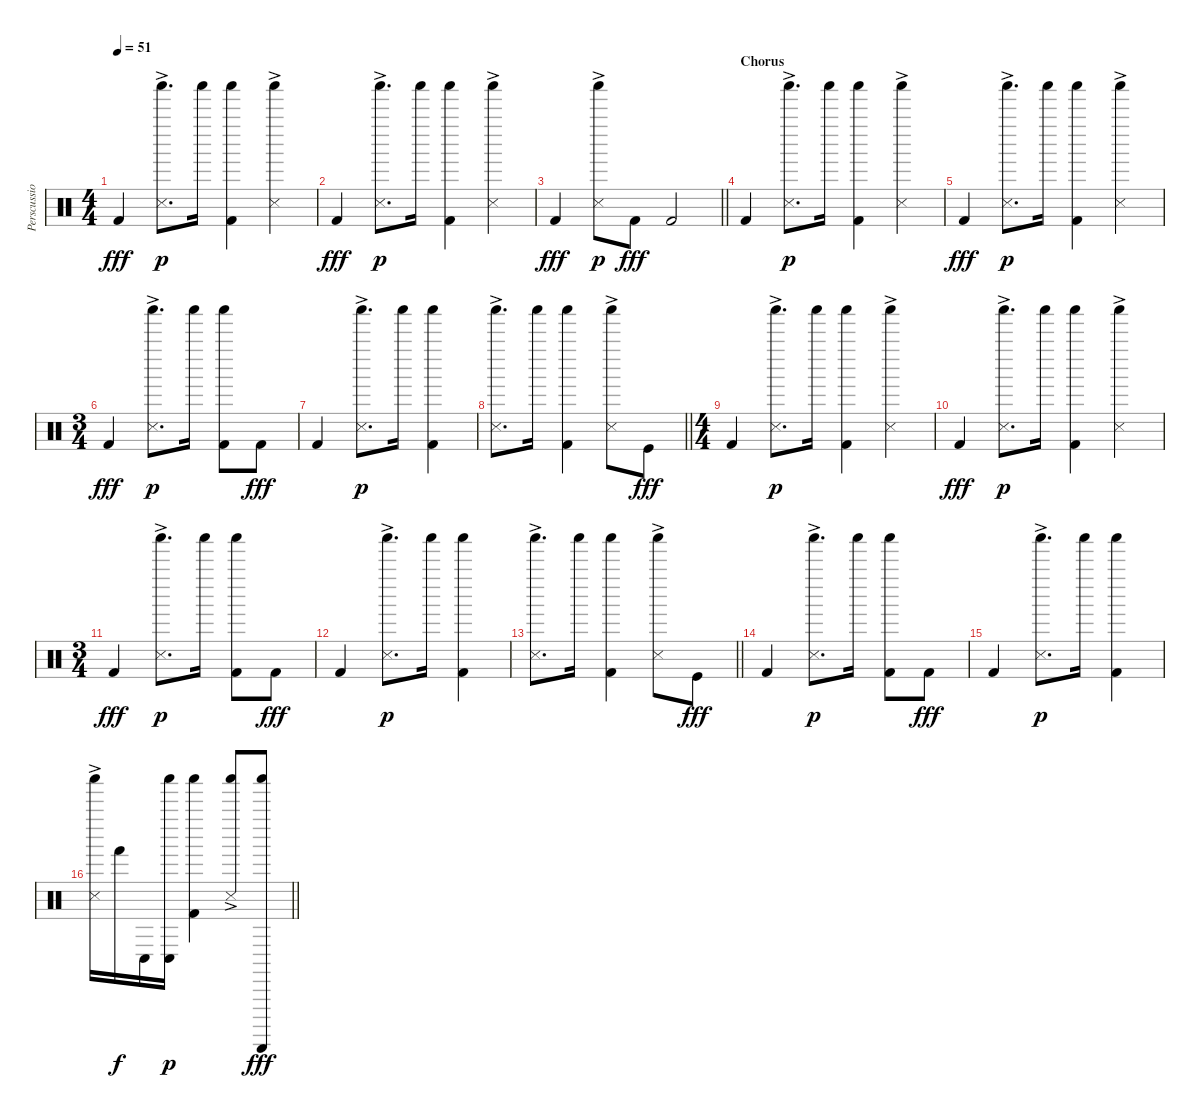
\track ("Perscussion" "Perscussio") {instrument percussion}
\staff {score}
\articulation defaults
\ts (4 4)
\tempo 51
\clef neutral
\ks c "Kick (hit) 2".4{dy fff}
("Snare (side stick) 3"{ac} "Shaker (hit)"{ac}).8{d dy p} "Shaker (hit)".16 ("Kick (hit) 2" "Shaker (hit)").4 ("Snare (side stick) 3"{ac} "Shaker (hit)").4 |
"Kick (hit) 2".4{dy fff} ("Snare (side stick) 3"{ac} "Shaker (hit)"{ac}).8{d dy p} "Shaker (hit)".16 ("Kick (hit) 2" "Shaker (hit)").4 ("Snare (side stick) 3"{ac} "Shaker (hit)"{ac}).4 |
\barLineRight lightlight "Kick (hit) 2".4{dy fff}
("Snare (side stick) 3"{ac} "Shaker (hit)"{ac}).8{dy p} "Kick (hit) 2".8{dy fff} "Kick (hit) 2".2 |
\section ("" "Chorus")
"Kick (hit) 2".4 ("Snare (side stick) 3"{ac} "Shaker (hit)"{ac}).8{d dy p} "Shaker (hit)".16 ("Kick (hit) 2" "Shaker (hit)").4 ("Snare (side stick) 3"{ac} "Shaker (hit)"{ac}).4 |
"Kick (hit) 2".4{dy fff} ("Snare (side stick) 3"{ac} "Shaker (hit)"{ac}).8{d dy p} "Shaker (hit)".16 ("Kick (hit) 2" "Shaker (hit)").4 ("Snare (side stick) 3"{ac} "Shaker (hit)"{ac}).4 |
\ts (3 4)
"Kick (hit) 2".4{dy fff} ("Snare (side stick) 3"{ac} "Shaker (hit)"{ac}).8{d dy p} "Shaker (hit)".16 ("Kick (hit) 2" "Shaker (hit)").8 "Kick (hit) 2".8{dy fff} |
"Kick (hit) 2".4 ("Snare (side stick) 3"{ac} "Shaker (hit)"{ac}).8{d dy p} "Shaker (hit)".16 ("Kick (hit) 2" "Shaker (hit)").4 |
\barLineRight lightlight
("Snare (side stick) 3"{ac} "Shaker (hit)"{ac}).8{d} "Shaker (hit)".16 ("Kick (hit) 2" "Shaker (hit)").4 ("Snare (side stick) 3"{ac} "Shaker (hit)"{ac}).8 "Kick (hit)".8{dy fff} |
\ts (4 4)
"Kick (hit) 2".4 ("Snare (side stick) 3"{ac} "Shaker (hit)"{ac}).8{d dy p} "Shaker (hit)".16 ("Kick (hit) 2" "Shaker (hit)").4 ("Snare (side stick) 3"{ac} "Shaker (hit)"{ac}).4 |
"Kick (hit) 2".4{dy fff} ("Snare (side stick) 3"{ac} "Shaker (hit)"{ac}).8{d dy p} "Shaker (hit)".16 ("Kick (hit) 2" "Shaker (hit)").4 ("Snare (side stick) 3"{ac} "Shaker (hit)"{ac}).4 |
\ts (3 4)
"Kick (hit) 2".4{dy fff} ("Snare (side stick) 3"{ac} "Shaker (hit)"{ac}).8{d dy p} "Shaker (hit)".16 ("Kick (hit) 2" "Shaker (hit)").8 "Kick (hit) 2".8{dy fff} |
"Kick (hit) 2".4 ("Snare (side stick) 3"{ac} "Shaker (hit)"{ac}).8{d dy p} "Shaker (hit)".16 ("Kick (hit) 2" "Shaker (hit)").4 |
\barLineRight lightlight
("Snare (side stick) 3"{ac} "Shaker (hit)"{ac}).8{d} "Shaker (hit)".16 ("Kick (hit) 2" "Shaker (hit)").4 ("Snare (side stick) 3"{ac} "Shaker (hit)"{ac}).8 "Kick (hit)".8{dy fff} |
"Kick (hit) 2".4 ("Snare (side stick) 3"{ac} "Shaker (hit)"{ac}).8{d dy p} "Shaker (hit)".16 ("Kick (hit) 2" "Shaker (hit)").8 "Kick (hit) 2".8{dy fff} |
"Kick (hit) 2".4 ("Snare (side stick) 3"{ac} "Shaker (hit)"{ac}).8{d dy p} "Shaker (hit)".16 ("Kick (hit) 2" "Shaker (hit)").4 |
\barLineRight lightlight
("Snare (side stick) 3"{ac} "Shaker (hit)"{ac}).16 "Hand (hit)".16{dy f} "Conga low (hit)".16 ("Shaker (hit)" "Conga low (hit)").16{dy p} ("Kick (hit) 2" "Shaker (hit)").4 ("Snare (side stick) 3"{ac} "Shaker (hit)"{ac}).8 ("Shaker (hit)" "Guiro (scrap-return)").8{dy fff}
